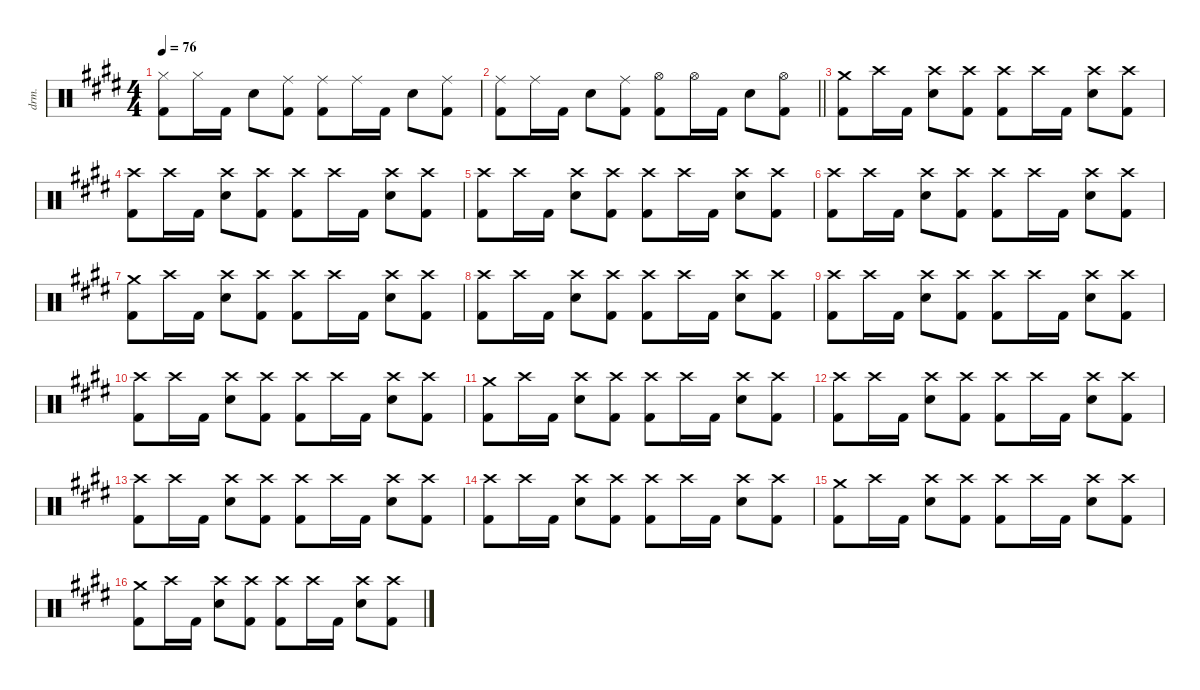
\defaultSystemsLayout 4
\hideDynamics
\bracketExtendMode nobrackets
\otherSystemsTrackNameOrientation horizontal
\track ("Drums" "drm.") {defaultSystemsLayout 4 instrument percussion}
\staff {score}
\articulation defaults
\ts (4 4)
\tempo 76
\clef neutral
\ks e
("Hi-Hat (closed)"{acc forcenatural} "Kick (hit) 2"{acc forcenatural}).8{dy f beam Down} "Hi-Hat (closed)"{acc forcenatural}.16{beam Down} "Kick (hit) 2"{acc forcenatural}.16{beam Down} "Snare (hit) 2"{acc forcenatural}.8{beam Down} ("Ride (middle)"{acc forcenatural} "Kick (hit) 2"{acc forcenatural}).8{beam Down} ("Ride (middle)"{acc forcenatural} "Kick (hit) 2"{acc forcenatural}).8{beam Down} "Ride (middle)"{acc forcenatural}.16{beam Down} "Kick (hit) 2"{acc forcenatural}.16{beam Down} "Snare (hit) 2"{acc forcenatural}.8{beam Down} ("Ride (middle)"{acc forcenatural} "Kick (hit) 2"{acc forcenatural}).8{beam Down} |
\barLineRight lightlight
("Ride (middle)"{acc forcenatural} "Kick (hit) 2"{acc forcenatural}).8{beam Down} "Ride (middle)"{acc forcenatural}.16{beam Down} "Kick (hit) 2"{acc forcenatural}.16{beam Down} "Snare (hit) 2"{acc forcenatural}.8{beam Down} ("Ride (middle)"{acc forcenatural} "Kick (hit) 2"{acc forcenatural}).8{beam Down} ("Hi-Hat (open)"{acc forcenatural} "Kick (hit) 2"{acc forcenatural}).8{beam Down} "Hi-Hat (open)"{acc forcenatural}.16{beam Down} "Kick (hit) 2"{acc forcenatural}.16{beam Down} "Snare (hit) 2"{acc forcenatural}.8{beam Down} ("Hi-Hat (open)"{acc forcenatural} "Kick (hit) 2"{acc forcenatural}).8{beam Down} |
("Crash medium (hit)"{acc forcenatural} "Kick (hit) 2"{acc forcenatural}).8{beam Down} "Crash high (hit)"{acc forcenatural}.16{beam Down} "Kick (hit) 2"{acc forcenatural}.16{beam Down} ("Crash high (hit)"{acc forcenatural} "Snare (hit) 2"{acc forcenatural}).8{beam Down} ("Crash high (hit)"{acc forcenatural} "Kick (hit) 2"{acc forcenatural}).8{beam Down} ("Crash high (hit)"{acc forcenatural} "Kick (hit) 2"{acc forcenatural}).8{beam Down} "Crash high (hit)"{acc forcenatural}.16{beam Down} "Kick (hit) 2"{acc forcenatural}.16{beam Down} ("Crash high (hit)"{acc forcenatural} "Snare (hit) 2"{acc forcenatural}).8{beam Down} ("Crash high (hit)"{acc forcenatural} "Kick (hit) 2"{acc forcenatural}).8{beam Down} |
("Crash high (hit)"{acc forcenatural} "Kick (hit) 2"{acc forcenatural}).8{beam Down} "Crash high (hit)"{acc forcenatural}.16{beam Down} "Kick (hit) 2"{acc forcenatural}.16{beam Down} ("Crash high (hit)"{acc forcenatural} "Snare (hit) 2"{acc forcenatural}).8{beam Down} ("Crash high (hit)"{acc forcenatural} "Kick (hit) 2"{acc forcenatural}).8{beam Down} ("Crash high (hit)"{acc forcenatural} "Kick (hit) 2"{acc forcenatural}).8{beam Down} "Crash high (hit)"{acc forcenatural}.16{beam Down} "Kick (hit) 2"{acc forcenatural}.16{beam Down} ("Crash high (hit)"{acc forcenatural} "Snare (hit) 2"{acc forcenatural}).8{beam Down} ("Crash high (hit)"{acc forcenatural} "Kick (hit) 2"{acc forcenatural}).8{beam Down} |
("Crash high (hit)"{acc forcenatural} "Kick (hit) 2"{acc forcenatural}).8{beam Down} "Crash high (hit)"{acc forcenatural}.16{beam Down} "Kick (hit) 2"{acc forcenatural}.16{beam Down} ("Crash high (hit)"{acc forcenatural} "Snare (hit) 2"{acc forcenatural}).8{beam Down} ("Crash high (hit)"{acc forcenatural} "Kick (hit) 2"{acc forcenatural}).8{beam Down} ("Crash high (hit)"{acc forcenatural} "Kick (hit) 2"{acc forcenatural}).8{beam Down} "Crash high (hit)"{acc forcenatural}.16{beam Down} "Kick (hit) 2"{acc forcenatural}.16{beam Down} ("Crash high (hit)"{acc forcenatural} "Snare (hit) 2"{acc forcenatural}).8{beam Down} ("Crash high (hit)"{acc forcenatural} "Kick (hit) 2"{acc forcenatural}).8{beam Down} |
("Crash high (hit)"{acc forcenatural} "Kick (hit) 2"{acc forcenatural}).8{beam Down} "Crash high (hit)"{acc forcenatural}.16{beam Down} "Kick (hit) 2"{acc forcenatural}.16{beam Down} ("Crash high (hit)"{acc forcenatural} "Snare (hit) 2"{acc forcenatural}).8{beam Down} ("Crash high (hit)"{acc forcenatural} "Kick (hit) 2"{acc forcenatural}).8{beam Down} ("Crash high (hit)"{acc forcenatural} "Kick (hit) 2"{acc forcenatural}).8{beam Down} "Crash high (hit)"{acc forcenatural}.16{beam Down} "Kick (hit) 2"{acc forcenatural}.16{beam Down} ("Crash high (hit)"{acc forcenatural} "Snare (hit) 2"{acc forcenatural}).8{beam Down} ("Crash high (hit)"{acc forcenatural} "Kick (hit) 2"{acc forcenatural}).8{beam Down} |
("Crash medium (hit)"{acc forcenatural} "Kick (hit) 2"{acc forcenatural}).8{beam Down} "Crash high (hit)"{acc forcenatural}.16{beam Down} "Kick (hit) 2"{acc forcenatural}.16{beam Down} ("Crash high (hit)"{acc forcenatural} "Snare (hit) 2"{acc forcenatural}).8{dy mf beam Down} ("Crash high (hit)"{acc forcenatural} "Kick (hit) 2"{acc forcenatural}).8{dy f beam Down} ("Crash high (hit)"{acc forcenatural} "Kick (hit) 2"{acc forcenatural}).8{beam Down} "Crash high (hit)"{acc forcenatural}.16{beam Down} "Kick (hit) 2"{acc forcenatural}.16{beam Down} ("Crash high (hit)"{acc forcenatural} "Snare (hit) 2"{acc forcenatural}).8{dy mf beam Down} ("Crash high (hit)"{acc forcenatural} "Kick (hit) 2"{acc forcenatural}).8{dy f beam Down} |
("Crash high (hit)"{acc forcenatural} "Kick (hit) 2"{acc forcenatural}).8{beam Down} "Crash high (hit)"{acc forcenatural}.16{beam Down} "Kick (hit) 2"{acc forcenatural}.16{beam Down} ("Crash high (hit)"{acc forcenatural} "Snare (hit) 2"{acc forcenatural}).8{dy mf beam Down} ("Crash high (hit)"{acc forcenatural} "Kick (hit) 2"{acc forcenatural}).8{dy f beam Down} ("Crash high (hit)"{acc forcenatural} "Kick (hit) 2"{acc forcenatural}).8{beam Down} "Crash high (hit)"{acc forcenatural}.16{beam Down} "Kick (hit) 2"{acc forcenatural}.16{beam Down} ("Crash high (hit)"{acc forcenatural} "Snare (hit) 2"{acc forcenatural}).8{dy mf beam Down} ("Crash high (hit)"{acc forcenatural} "Kick (hit) 2"{acc forcenatural}).8{dy f beam Down} |
("Crash high (hit)"{acc forcenatural} "Kick (hit) 2"{acc forcenatural}).8{beam Down} "Crash high (hit)"{acc forcenatural}.16{beam Down} "Kick (hit) 2"{acc forcenatural}.16{beam Down} ("Crash high (hit)"{acc forcenatural} "Snare (hit) 2"{acc forcenatural}).8{dy mf beam Down} ("Crash high (hit)"{acc forcenatural} "Kick (hit) 2"{acc forcenatural}).8{dy f beam Down} ("Crash high (hit)"{acc forcenatural} "Kick (hit) 2"{acc forcenatural}).8{beam Down} "Crash high (hit)"{acc forcenatural}.16{beam Down} "Kick (hit) 2"{acc forcenatural}.16{beam Down} ("Crash high (hit)"{acc forcenatural} "Snare (hit) 2"{acc forcenatural}).8{dy mf beam Down} ("Crash high (hit)"{acc forcenatural} "Kick (hit) 2"{acc forcenatural}).8{dy f beam Down} |
("Crash high (hit)"{acc forcenatural} "Kick (hit) 2"{acc forcenatural}).8{beam Down} "Crash high (hit)"{acc forcenatural}.16{beam Down} "Kick (hit) 2"{acc forcenatural}.16{beam Down} ("Crash high (hit)"{acc forcenatural} "Snare (hit) 2"{acc forcenatural}).8{dy mf beam Down} ("Crash high (hit)"{acc forcenatural} "Kick (hit) 2"{acc forcenatural}).8{dy f beam Down} ("Crash high (hit)"{acc forcenatural} "Kick (hit) 2"{acc forcenatural}).8{beam Down} "Crash high (hit)"{acc forcenatural}.16{beam Down} "Kick (hit) 2"{acc forcenatural}.16{beam Down} ("Crash high (hit)"{acc forcenatural} "Snare (hit) 2"{acc forcenatural}).8{dy mf beam Down} ("Crash high (hit)"{acc forcenatural} "Kick (hit) 2"{acc forcenatural}).8{dy f beam Down} |
("Crash medium (hit)"{acc forcenatural} "Kick (hit) 2"{acc forcenatural}).8{beam Down} "Crash high (hit)"{acc forcenatural}.16{beam Down} "Kick (hit) 2"{acc forcenatural}.16{beam Down} ("Crash high (hit)"{acc forcenatural} "Snare (hit) 2"{acc forcenatural}).8{dy mf beam Down} ("Crash high (hit)"{acc forcenatural} "Kick (hit) 2"{acc forcenatural}).8{dy f beam Down} ("Crash high (hit)"{acc forcenatural} "Kick (hit) 2"{acc forcenatural}).8{beam Down} "Crash high (hit)"{acc forcenatural}.16{beam Down} "Kick (hit) 2"{acc forcenatural}.16{beam Down} ("Crash high (hit)"{acc forcenatural} "Snare (hit) 2"{acc forcenatural}).8{dy mf beam Down} ("Crash high (hit)"{acc forcenatural} "Kick (hit) 2"{acc forcenatural}).8{dy f beam Down} |
("Crash high (hit)"{acc forcenatural} "Kick (hit) 2"{acc forcenatural}).8{beam Down} "Crash high (hit)"{acc forcenatural}.16{beam Down} "Kick (hit) 2"{acc forcenatural}.16{beam Down} ("Crash high (hit)"{acc forcenatural} "Snare (hit) 2"{acc forcenatural}).8{dy mf beam Down} ("Crash high (hit)"{acc forcenatural} "Kick (hit) 2"{acc forcenatural}).8{dy f beam Down} ("Crash high (hit)"{acc forcenatural} "Kick (hit) 2"{acc forcenatural}).8{beam Down} "Crash high (hit)"{acc forcenatural}.16{beam Down} "Kick (hit) 2"{acc forcenatural}.16{beam Down} ("Crash high (hit)"{acc forcenatural} "Snare (hit) 2"{acc forcenatural}).8{dy mf beam Down} ("Crash high (hit)"{acc forcenatural} "Kick (hit) 2"{acc forcenatural}).8{dy f beam Down} |
("Crash high (hit)"{acc forcenatural} "Kick (hit) 2"{acc forcenatural}).8{beam Down} "Crash high (hit)"{acc forcenatural}.16{beam Down} "Kick (hit) 2"{acc forcenatural}.16{beam Down} ("Crash high (hit)"{acc forcenatural} "Snare (hit) 2"{acc forcenatural}).8{dy mf beam Down} ("Crash high (hit)"{acc forcenatural} "Kick (hit) 2"{acc forcenatural}).8{dy f beam Down} ("Crash high (hit)"{acc forcenatural} "Kick (hit) 2"{acc forcenatural}).8{beam Down} "Crash high (hit)"{acc forcenatural}.16{beam Down} "Kick (hit) 2"{acc forcenatural}.16{beam Down} ("Crash high (hit)"{acc forcenatural} "Snare (hit) 2"{acc forcenatural}).8{dy mf beam Down} ("Crash high (hit)"{acc forcenatural} "Kick (hit) 2"{acc forcenatural}).8{dy f beam Down} |
("Crash high (hit)"{acc forcenatural} "Kick (hit) 2"{acc forcenatural}).8{beam Down} "Crash high (hit)"{acc forcenatural}.16{beam Down} "Kick (hit) 2"{acc forcenatural}.16{beam Down} ("Crash high (hit)"{acc forcenatural} "Snare (hit) 2"{acc forcenatural}).8{dy mf beam Down} ("Crash high (hit)"{acc forcenatural} "Kick (hit) 2"{acc forcenatural}).8{dy f beam Down} ("Crash high (hit)"{acc forcenatural} "Kick (hit) 2"{acc forcenatural}).8{beam Down} "Crash high (hit)"{acc forcenatural}.16{beam Down} "Kick (hit) 2"{acc forcenatural}.16{beam Down} ("Crash high (hit)"{acc forcenatural} "Snare (hit) 2"{acc forcenatural}).8{dy mf beam Down} ("Crash high (hit)"{acc forcenatural} "Kick (hit) 2"{acc forcenatural}).8{dy f beam Down} |
("Crash medium (hit)"{acc forcenatural} "Kick (hit) 2"{acc forcenatural}).8{beam Down} "Crash high (hit)"{acc forcenatural}.16{beam Down} "Kick (hit) 2"{acc forcenatural}.16{beam Down} ("Crash high (hit)"{acc forcenatural} "Snare (hit) 2"{acc forcenatural}).8{dy mf beam Down} ("Crash high (hit)"{acc forcenatural} "Kick (hit) 2"{acc forcenatural}).8{dy f beam Down} ("Crash high (hit)"{acc forcenatural} "Kick (hit) 2"{acc forcenatural}).8{beam Down} "Crash high (hit)"{acc forcenatural}.16{beam Down} "Kick (hit) 2"{acc forcenatural}.16{beam Down} ("Crash high (hit)"{acc forcenatural} "Snare (hit) 2"{acc forcenatural}).8{dy mf beam Down} ("Crash high (hit)"{acc forcenatural} "Kick (hit) 2"{acc forcenatural}).8{dy f beam Down} |
("Crash medium (hit)"{acc forcenatural} "Kick (hit) 2"{acc forcenatural}).8{beam Down} "Crash high (hit)"{acc forcenatural}.16{beam Down} "Kick (hit) 2"{acc forcenatural}.16{beam Down} ("Crash high (hit)"{acc forcenatural} "Snare (hit) 2"{acc forcenatural}).8{dy mf beam Down} ("Crash high (hit)"{acc forcenatural} "Kick (hit) 2"{acc forcenatural}).8{dy f beam Down} ("Crash high (hit)"{acc forcenatural} "Kick (hit) 2"{acc forcenatural}).8{beam Down} "Crash high (hit)"{acc forcenatural}.16{beam Down} "Kick (hit) 2"{acc forcenatural}.16{beam Down} ("Crash high (hit)"{acc forcenatural} "Snare (hit) 2"{acc forcenatural}).8{dy mf beam Down} ("Crash high (hit)"{acc forcenatural} "Kick (hit) 2"{acc forcenatural}).8{dy f beam Down}
